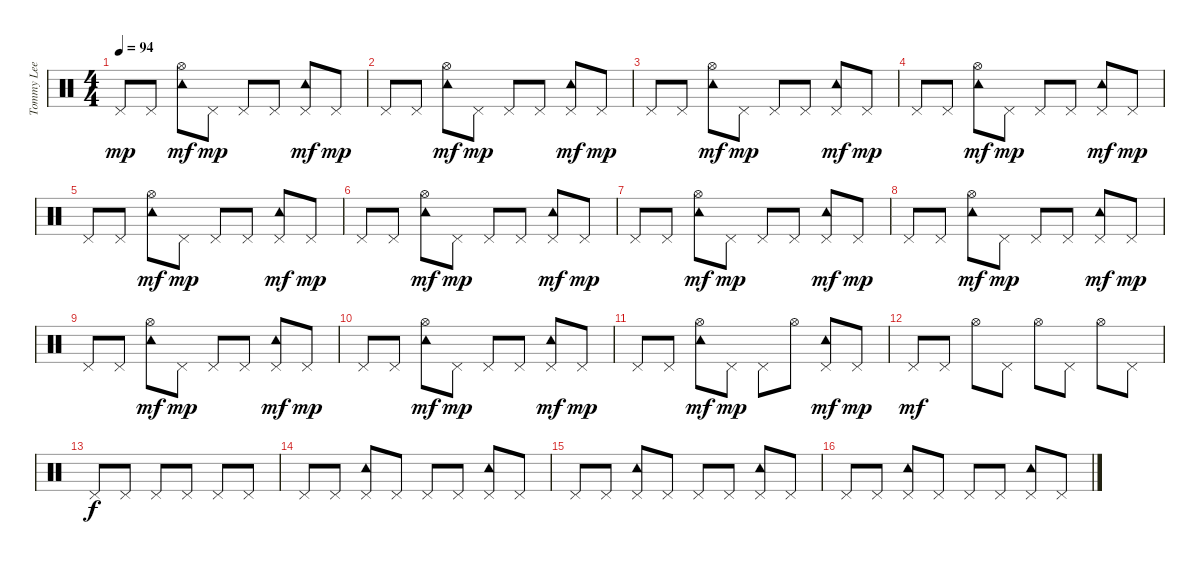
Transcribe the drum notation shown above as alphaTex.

\track ("Tommy Lee" "Tommy Lee") {instrument percussion}
\staff {score}
\articulation defaults
\ts (4 4)
\tempo 94
\clef neutral
\ks c "Pedal Hi-Hat (hit)".8{dy mp} "Pedal Hi-Hat (hit)".8
("Hi-Hat (open)" "Tambourine (hit)").8{dy mf} "Pedal Hi-Hat (hit)".8{dy mp} "Pedal Hi-Hat (hit)".8 "Pedal Hi-Hat (hit)".8 ("Pedal Hi-Hat (hit)" "Tambourine (hit)").8{dy mf} "Pedal Hi-Hat (hit)".8{dy mp} |
"Pedal Hi-Hat (hit)".8 "Pedal Hi-Hat (hit)".8 ("Hi-Hat (open)" "Tambourine (hit)").8{dy mf} "Pedal Hi-Hat (hit)".8{dy mp} "Pedal Hi-Hat (hit)".8 "Pedal Hi-Hat (hit)".8 ("Pedal Hi-Hat (hit)" "Tambourine (hit)").8{dy mf} "Pedal Hi-Hat (hit)".8{dy mp} |
"Pedal Hi-Hat (hit)".8 "Pedal Hi-Hat (hit)".8 ("Hi-Hat (open)" "Tambourine (hit)").8{dy mf} "Pedal Hi-Hat (hit)".8{dy mp} "Pedal Hi-Hat (hit)".8 "Pedal Hi-Hat (hit)".8 ("Pedal Hi-Hat (hit)" "Tambourine (hit)").8{dy mf} "Pedal Hi-Hat (hit)".8{dy mp} |
"Pedal Hi-Hat (hit)".8 "Pedal Hi-Hat (hit)".8 ("Hi-Hat (open)" "Tambourine (hit)").8{dy mf} "Pedal Hi-Hat (hit)".8{dy mp} "Pedal Hi-Hat (hit)".8 "Pedal Hi-Hat (hit)".8 ("Pedal Hi-Hat (hit)" "Tambourine (hit)").8{dy mf} "Pedal Hi-Hat (hit)".8{dy mp} |
"Pedal Hi-Hat (hit)".8 "Pedal Hi-Hat (hit)".8 ("Hi-Hat (open)" "Tambourine (hit)").8{dy mf} "Pedal Hi-Hat (hit)".8{dy mp} "Pedal Hi-Hat (hit)".8 "Pedal Hi-Hat (hit)".8 ("Pedal Hi-Hat (hit)" "Tambourine (hit)").8{dy mf} "Pedal Hi-Hat (hit)".8{dy mp} |
"Pedal Hi-Hat (hit)".8 "Pedal Hi-Hat (hit)".8 ("Hi-Hat (open)" "Tambourine (hit)").8{dy mf} "Pedal Hi-Hat (hit)".8{dy mp} "Pedal Hi-Hat (hit)".8 "Pedal Hi-Hat (hit)".8 ("Pedal Hi-Hat (hit)" "Tambourine (hit)").8{dy mf} "Pedal Hi-Hat (hit)".8{dy mp} |
"Pedal Hi-Hat (hit)".8 "Pedal Hi-Hat (hit)".8 ("Hi-Hat (open)" "Tambourine (hit)").8{dy mf} "Pedal Hi-Hat (hit)".8{dy mp} "Pedal Hi-Hat (hit)".8 "Pedal Hi-Hat (hit)".8 ("Pedal Hi-Hat (hit)" "Tambourine (hit)").8{dy mf} "Pedal Hi-Hat (hit)".8{dy mp} |
"Pedal Hi-Hat (hit)".8 "Pedal Hi-Hat (hit)".8 ("Hi-Hat (open)" "Tambourine (hit)").8{dy mf} "Pedal Hi-Hat (hit)".8{dy mp} "Pedal Hi-Hat (hit)".8 "Pedal Hi-Hat (hit)".8 ("Pedal Hi-Hat (hit)" "Tambourine (hit)").8{dy mf} "Pedal Hi-Hat (hit)".8{dy mp} |
"Pedal Hi-Hat (hit)".8 "Pedal Hi-Hat (hit)".8 ("Hi-Hat (open)" "Tambourine (hit)").8{dy mf} "Pedal Hi-Hat (hit)".8{dy mp} "Pedal Hi-Hat (hit)".8 "Pedal Hi-Hat (hit)".8 ("Pedal Hi-Hat (hit)" "Tambourine (hit)").8{dy mf} "Pedal Hi-Hat (hit)".8{dy mp} |
"Pedal Hi-Hat (hit)".8 "Pedal Hi-Hat (hit)".8 ("Hi-Hat (open)" "Tambourine (hit)").8{dy mf} "Pedal Hi-Hat (hit)".8{dy mp} "Pedal Hi-Hat (hit)".8 "Pedal Hi-Hat (hit)".8 ("Pedal Hi-Hat (hit)" "Tambourine (hit)").8{dy mf} "Pedal Hi-Hat (hit)".8{dy mp} |
"Pedal Hi-Hat (hit)".8 "Pedal Hi-Hat (hit)".8 ("Hi-Hat (open)" "Tambourine (hit)").8{dy mf} "Pedal Hi-Hat (hit)".8{dy mp} "Pedal Hi-Hat (hit)".8 "Hi-Hat (open)".8 ("Pedal Hi-Hat (hit)" "Tambourine (hit)").8{dy mf} "Pedal Hi-Hat (hit)".8{dy mp} |
"Pedal Hi-Hat (hit)".8{dy mf} "Pedal Hi-Hat (hit)".8 "Hi-Hat (open)".8 "Pedal Hi-Hat (hit)".8 "Hi-Hat (open)".8 "Pedal Hi-Hat (hit)".8 "Hi-Hat (open)".8 "Pedal Hi-Hat (hit)".8 |
"Pedal Hi-Hat (hit)".8{dy f} "Pedal Hi-Hat (hit)".8 "Pedal Hi-Hat (hit)".8 "Pedal Hi-Hat (hit)".8 "Pedal Hi-Hat (hit)".8 "Pedal Hi-Hat (hit)".8 |
"Pedal Hi-Hat (hit)".8 "Pedal Hi-Hat (hit)".8 ("Pedal Hi-Hat (hit)" "Tambourine (hit)").8 "Pedal Hi-Hat (hit)".8 "Pedal Hi-Hat (hit)".8 "Pedal Hi-Hat (hit)".8 ("Pedal Hi-Hat (hit)" "Tambourine (hit)").8 "Pedal Hi-Hat (hit)".8 |
"Pedal Hi-Hat (hit)".8 "Pedal Hi-Hat (hit)".8 ("Pedal Hi-Hat (hit)" "Tambourine (hit)").8 "Pedal Hi-Hat (hit)".8 "Pedal Hi-Hat (hit)".8 "Pedal Hi-Hat (hit)".8 ("Pedal Hi-Hat (hit)" "Tambourine (hit)").8 "Pedal Hi-Hat (hit)".8 |
"Pedal Hi-Hat (hit)".8 "Pedal Hi-Hat (hit)".8 ("Pedal Hi-Hat (hit)" "Tambourine (hit)").8 "Pedal Hi-Hat (hit)".8 "Pedal Hi-Hat (hit)".8 "Pedal Hi-Hat (hit)".8 ("Pedal Hi-Hat (hit)" "Tambourine (hit)").8 "Pedal Hi-Hat (hit)".8
